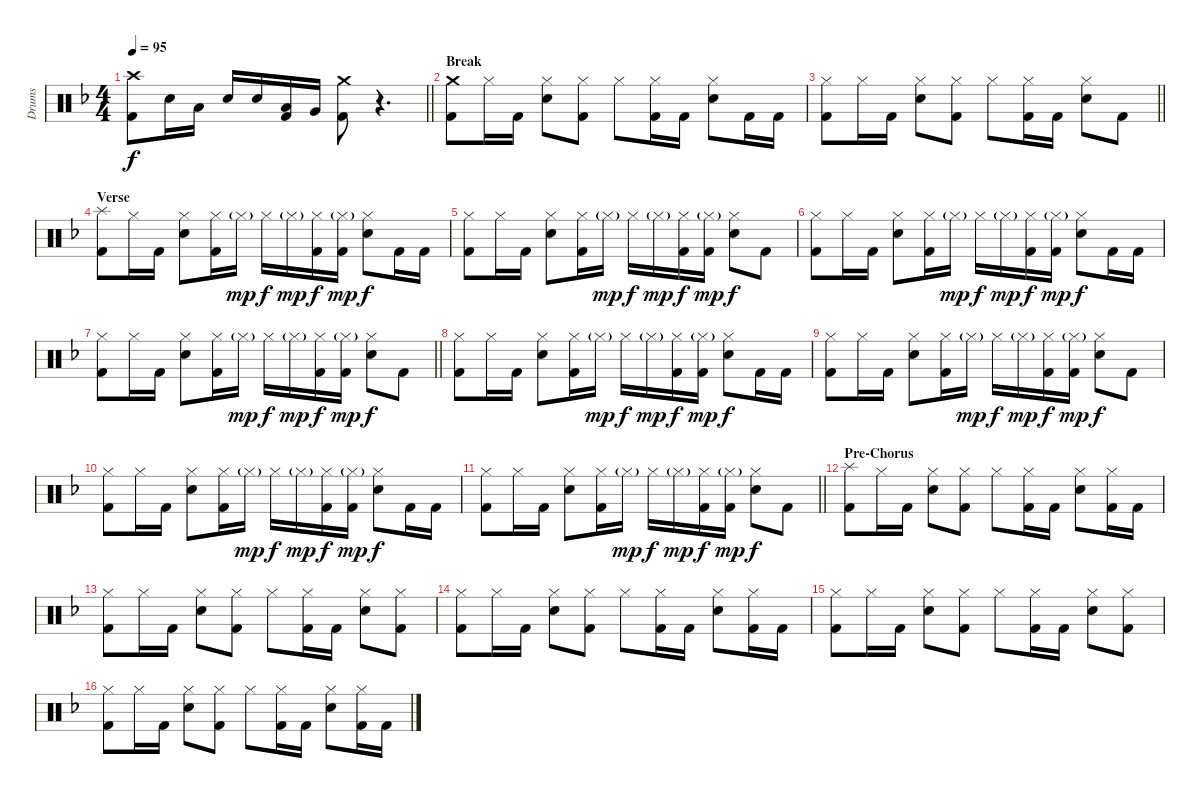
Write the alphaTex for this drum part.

\track ("Drums" "Drums") {instrument percussion}
\staff {score}
\articulation defaults
\ts (4 4)
\tempo 95
\clef neutral
\barLineRight lightlight
\ks f
("Crash high (hit)" "Kick (hit) 2").8{dy f} "Electric Snare (hit)".16 "Low Tom (hit)".16 "Electric Snare (hit)".16 "Electric Snare (hit)".16 ("Low Tom (hit)" "Kick (hit) 2").16 "Very Low Tom (hit)".16 ("Crash medium (hit)" "Kick (hit) 2").8 r.4{d} |
\section ("" "Break")
("Crash medium (hit)" "Kick (hit) 2").8 "Hi-Hat (closed)".16 "Kick (hit) 2".16 ("Hi-Hat (closed)" "Electric Snare (hit)").8 ("Hi-Hat (closed)" "Kick (hit) 2").8 "Hi-Hat (closed)".8 ("Hi-Hat (closed)" "Kick (hit) 2").16 "Kick (hit) 2".16 ("Hi-Hat (closed)" "Electric Snare (hit)").8 "Kick (hit) 2".16 "Kick (hit) 2".16 |
\barLineRight lightlight
("Hi-Hat (closed)" "Kick (hit) 2").8 "Hi-Hat (closed)".16 "Kick (hit) 2".16 ("Hi-Hat (closed)" "Electric Snare (hit)").8 ("Hi-Hat (closed)" "Kick (hit) 2").8 "Hi-Hat (closed)".8 ("Hi-Hat (closed)" "Kick (hit) 2").16 "Kick (hit) 2".16 ("Hi-Hat (closed)" "Electric Snare (hit)").8 "Kick (hit) 2".8 |
\section ("" "Verse")
("Splash (hit)" "Kick (hit) 2").8 "Hi-Hat (closed)".16 "Kick (hit) 2".16 ("Hi-Hat (closed)" "Electric Snare (hit)").8 ("Hi-Hat (closed)" "Kick (hit) 2").16 "Hi-Hat (closed)"{g}.16{dy mp} "Hi-Hat (closed)".16{dy f} "Hi-Hat (closed)"{g}.16{dy mp} ("Hi-Hat (closed)" "Kick (hit) 2").16{dy f} ("Hi-Hat (closed)"{g} "Kick (hit) 2").16{dy mp} ("Hi-Hat (closed)" "Electric Snare (hit)").8{dy f} "Kick (hit) 2".16 "Kick (hit) 2".16 |
("Hi-Hat (closed)" "Kick (hit) 2").8 "Hi-Hat (closed)".16 "Kick (hit) 2".16 ("Hi-Hat (closed)" "Electric Snare (hit)").8 ("Hi-Hat (closed)" "Kick (hit) 2").16 "Hi-Hat (closed)"{g}.16{dy mp} "Hi-Hat (closed)".16{dy f} "Hi-Hat (closed)"{g}.16{dy mp} ("Hi-Hat (closed)" "Kick (hit) 2").16{dy f} ("Hi-Hat (closed)"{g} "Kick (hit) 2").16{dy mp} ("Hi-Hat (closed)" "Electric Snare (hit)").8{dy f} "Kick (hit) 2".8 |
("Hi-Hat (closed)" "Kick (hit) 2").8 "Hi-Hat (closed)".16 "Kick (hit) 2".16 ("Hi-Hat (closed)" "Electric Snare (hit)").8 ("Hi-Hat (closed)" "Kick (hit) 2").16 "Hi-Hat (closed)"{g}.16{dy mp} "Hi-Hat (closed)".16{dy f} "Hi-Hat (closed)"{g}.16{dy mp} ("Hi-Hat (closed)" "Kick (hit) 2").16{dy f} ("Hi-Hat (closed)"{g} "Kick (hit) 2").16{dy mp} ("Hi-Hat (closed)" "Electric Snare (hit)").8{dy f} "Kick (hit) 2".16 "Kick (hit) 2".16 |
\barLineRight lightlight
("Hi-Hat (closed)" "Kick (hit) 2").8 "Hi-Hat (closed)".16 "Kick (hit) 2".16 ("Hi-Hat (closed)" "Electric Snare (hit)").8 ("Hi-Hat (closed)" "Kick (hit) 2").16 "Hi-Hat (closed)"{g}.16{dy mp} "Hi-Hat (closed)".16{dy f} "Hi-Hat (closed)"{g}.16{dy mp} ("Hi-Hat (closed)" "Kick (hit) 2").16{dy f} ("Hi-Hat (closed)"{g} "Kick (hit) 2").16{dy mp} ("Hi-Hat (closed)" "Electric Snare (hit)").8{dy f} "Kick (hit) 2".8 |
("Hi-Hat (closed)" "Kick (hit) 2").8 "Hi-Hat (closed)".16 "Kick (hit) 2".16 ("Hi-Hat (closed)" "Electric Snare (hit)").8 ("Hi-Hat (closed)" "Kick (hit) 2").16 "Hi-Hat (closed)"{g}.16{dy mp} "Hi-Hat (closed)".16{dy f} "Hi-Hat (closed)"{g}.16{dy mp} ("Hi-Hat (closed)" "Kick (hit) 2").16{dy f} ("Hi-Hat (closed)"{g} "Kick (hit) 2").16{dy mp} ("Hi-Hat (closed)" "Electric Snare (hit)").8{dy f} "Kick (hit) 2".16 "Kick (hit) 2".16 |
("Hi-Hat (closed)" "Kick (hit) 2").8 "Hi-Hat (closed)".16 "Kick (hit) 2".16 ("Hi-Hat (closed)" "Electric Snare (hit)").8 ("Hi-Hat (closed)" "Kick (hit) 2").16 "Hi-Hat (closed)"{g}.16{dy mp} "Hi-Hat (closed)".16{dy f} "Hi-Hat (closed)"{g}.16{dy mp} ("Hi-Hat (closed)" "Kick (hit) 2").16{dy f} ("Hi-Hat (closed)"{g} "Kick (hit) 2").16{dy mp} ("Hi-Hat (closed)" "Electric Snare (hit)").8{dy f} "Kick (hit) 2".8 |
("Hi-Hat (closed)" "Kick (hit) 2").8 "Hi-Hat (closed)".16 "Kick (hit) 2".16 ("Hi-Hat (closed)" "Electric Snare (hit)").8 ("Hi-Hat (closed)" "Kick (hit) 2").16 "Hi-Hat (closed)"{g}.16{dy mp} "Hi-Hat (closed)".16{dy f} "Hi-Hat (closed)"{g}.16{dy mp} ("Hi-Hat (closed)" "Kick (hit) 2").16{dy f} ("Hi-Hat (closed)"{g} "Kick (hit) 2").16{dy mp} ("Hi-Hat (closed)" "Electric Snare (hit)").8{dy f} "Kick (hit) 2".16 "Kick (hit) 2".16 |
\barLineRight lightlight
("Hi-Hat (closed)" "Kick (hit) 2").8 "Hi-Hat (closed)".16 "Kick (hit) 2".16 ("Hi-Hat (closed)" "Electric Snare (hit)").8 ("Hi-Hat (closed)" "Kick (hit) 2").16 "Hi-Hat (closed)"{g}.16{dy mp} "Hi-Hat (closed)".16{dy f} "Hi-Hat (closed)"{g}.16{dy mp} ("Hi-Hat (closed)" "Kick (hit) 2").16{dy f} ("Hi-Hat (closed)"{g} "Kick (hit) 2").16{dy mp} ("Hi-Hat (closed)" "Electric Snare (hit)").8{dy f} "Kick (hit) 2".8 |
\section ("" "Pre-Chorus")
("Splash (hit)" "Kick (hit) 2").8 "Hi-Hat (closed)".16 "Kick (hit) 2".16 ("Hi-Hat (closed)" "Electric Snare (hit)").8 ("Hi-Hat (closed)" "Kick (hit) 2").8 "Hi-Hat (closed)".8 ("Hi-Hat (closed)" "Kick (hit) 2").16 "Kick (hit) 2".16 ("Hi-Hat (closed)" "Electric Snare (hit)").8 ("Hi-Hat (closed)" "Kick (hit) 2").16 "Kick (hit) 2".16 |
("Hi-Hat (closed)" "Kick (hit) 2").8 "Hi-Hat (closed)".16 "Kick (hit) 2".16 ("Hi-Hat (closed)" "Electric Snare (hit)").8 ("Hi-Hat (closed)" "Kick (hit) 2").8 "Hi-Hat (closed)".8 ("Hi-Hat (closed)" "Kick (hit) 2").16 "Kick (hit) 2".16 ("Hi-Hat (closed)" "Electric Snare (hit)").8 ("Hi-Hat (closed)" "Kick (hit) 2").8 |
("Hi-Hat (closed)" "Kick (hit) 2").8 "Hi-Hat (closed)".16 "Kick (hit) 2".16 ("Hi-Hat (closed)" "Electric Snare (hit)").8 ("Hi-Hat (closed)" "Kick (hit) 2").8 "Hi-Hat (closed)".8 ("Hi-Hat (closed)" "Kick (hit) 2").16 "Kick (hit) 2".16 ("Hi-Hat (closed)" "Electric Snare (hit)").8 ("Hi-Hat (closed)" "Kick (hit) 2").16 "Kick (hit) 2".16 |
("Hi-Hat (closed)" "Kick (hit) 2").8 "Hi-Hat (closed)".16 "Kick (hit) 2".16 ("Hi-Hat (closed)" "Electric Snare (hit)").8 ("Hi-Hat (closed)" "Kick (hit) 2").8 "Hi-Hat (closed)".8 ("Hi-Hat (closed)" "Kick (hit) 2").16 "Kick (hit) 2".16 ("Hi-Hat (closed)" "Electric Snare (hit)").8 ("Hi-Hat (closed)" "Kick (hit) 2").8 |
("Hi-Hat (closed)" "Kick (hit) 2").8 "Hi-Hat (closed)".16 "Kick (hit) 2".16 ("Hi-Hat (closed)" "Electric Snare (hit)").8 ("Hi-Hat (closed)" "Kick (hit) 2").8 "Hi-Hat (closed)".8 ("Hi-Hat (closed)" "Kick (hit) 2").16 "Kick (hit) 2".16 ("Hi-Hat (closed)" "Electric Snare (hit)").8 ("Hi-Hat (closed)" "Kick (hit) 2").16 "Kick (hit) 2".16
